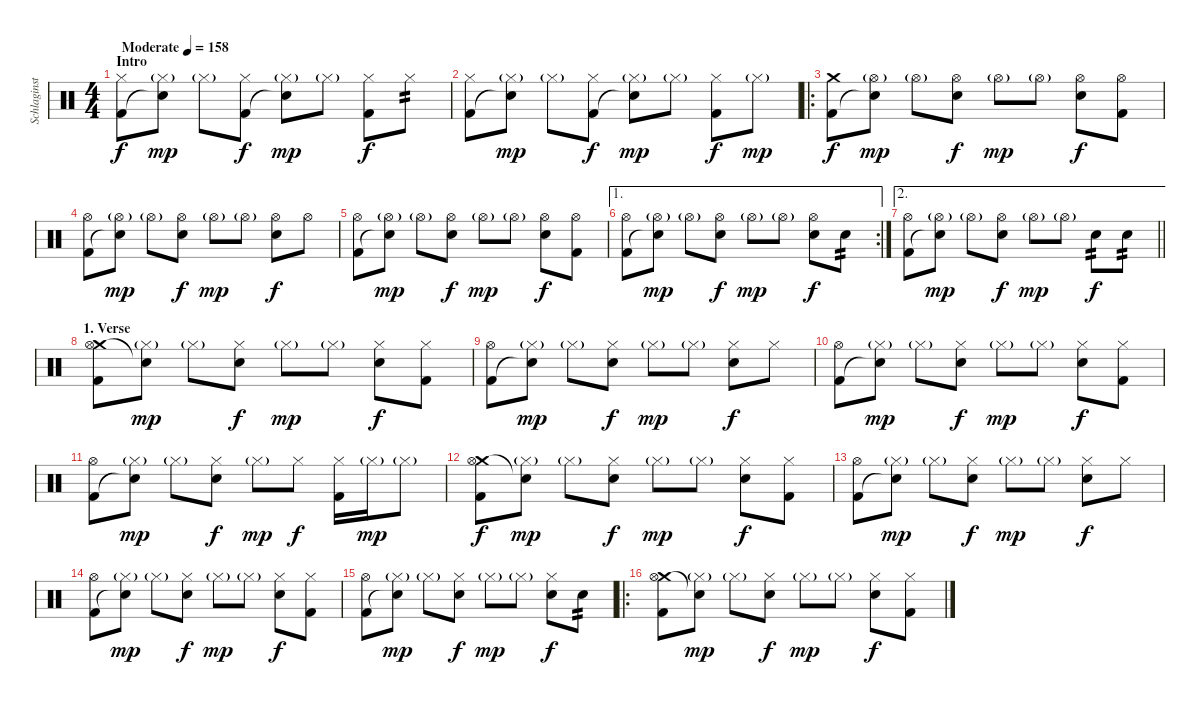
\track ("Schlaginstrumente - Auswahl" "Schlaginst") {instrument percussion}
\staff {score}
\articulation defaults
\ts (4 4)
\section ("" "Intro")
\tempo (158 "Moderate")
\clef neutral
\ks c
("Hi-Hat (closed)" "Kick (hit) 2").8{dy f} ("Hi-Hat (closed)"{g} "Snare (hit)"{t}).8{dy mp} "Hi-Hat (closed)"{g}.8 ("Hi-Hat (closed)" "Kick (hit) 2").8{dy f} ("Hi-Hat (closed)"{g} "Snare (hit)"{t}).8{dy mp} "Hi-Hat (closed)"{g}.8 ("Hi-Hat (closed)" "Kick (hit) 2").8{dy f} "Hi-Hat (closed)".8{tp 2} |
("Hi-Hat (closed)" "Kick (hit) 2").8 ("Hi-Hat (closed)"{g} "Snare (hit)"{t}).8{dy mp} "Hi-Hat (closed)"{g}.8 ("Hi-Hat (closed)" "Kick (hit) 2").8{dy f} ("Hi-Hat (closed)"{g} "Snare (hit)"{t}).8{dy mp} "Hi-Hat (closed)"{g}.8 ("Hi-Hat (closed)" "Kick (hit) 2").8{dy f} "Hi-Hat (closed)"{g}.8{dy mp} |
\ro
("Crash medium (hit)" "Kick (hit) 2").8{dy f} ("Hi-Hat (open)"{g} "Snare (hit)"{t}).8{dy mp} "Hi-Hat (open)"{g}.8 ("Hi-Hat (open)" "Snare (hit) 2").8{dy f} "Hi-Hat (open)"{g}.8{dy mp} "Hi-Hat (open)"{g}.8 ("Hi-Hat (open)" "Snare (hit) 2").8{dy f} ("Hi-Hat (open)" "Kick (hit) 2").8 |
("Hi-Hat (open)" "Kick (hit) 2").8 ("Hi-Hat (open)"{g} "Snare (hit)"{t}).8{dy mp} "Hi-Hat (open)"{g}.8 ("Hi-Hat (open)" "Snare (hit) 2").8{dy f} "Hi-Hat (open)"{g}.8{dy mp} "Hi-Hat (open)"{g}.8 ("Hi-Hat (open)" "Snare (hit) 2").8{dy f} "Hi-Hat (open)".8 |
("Hi-Hat (open)" "Kick (hit) 2").8 ("Hi-Hat (open)"{g} "Snare (hit)"{t}).8{dy mp} "Hi-Hat (open)"{g}.8 ("Hi-Hat (open)" "Snare (hit) 2").8{dy f} "Hi-Hat (open)"{g}.8{dy mp} "Hi-Hat (open)"{g}.8 ("Hi-Hat (open)" "Snare (hit) 2").8{dy f} ("Hi-Hat (open)" "Kick (hit) 2").8 |
\ae 1
\rc 2
("Hi-Hat (open)" "Kick (hit) 2").8 ("Hi-Hat (open)"{g} "Snare (hit)"{t}).8{dy mp} "Hi-Hat (open)"{g}.8 ("Hi-Hat (open)" "Snare (hit) 2").8{dy f} "Hi-Hat (open)"{g}.8{dy mp} "Hi-Hat (open)"{g}.8 ("Hi-Hat (open)" "Snare (hit) 2").8{dy f} "Snare (hit) 2".8{tp 2} |
\ae 2
\barLineRight lightlight
("Hi-Hat (open)" "Kick (hit) 2").8 ("Hi-Hat (open)"{g} "Snare (hit)"{t}).8{dy mp} "Hi-Hat (open)"{g}.8 ("Hi-Hat (open)" "Snare (hit) 2").8{dy f} "Hi-Hat (open)"{g}.8{dy mp} "Hi-Hat (open)"{g}.8 "Snare (hit) 2".8{tp 2 dy f} "Snare (hit) 2".8{tp 2} |
\section ("" "1. Verse")
("Crash medium (hit)" "Hi-Hat (open)" "Kick (hit) 2").8 ("Hi-Hat (closed)"{g} "Snare (hit)"{t}).8{dy mp} "Hi-Hat (closed)"{g}.8 ("Hi-Hat (closed)" "Snare (hit) 2").8{dy f} "Hi-Hat (closed)"{g}.8{dy mp} "Hi-Hat (closed)"{g}.8 ("Hi-Hat (closed)" "Snare (hit) 2").8{dy f} ("Hi-Hat (closed)" "Kick (hit) 2").8 |
("Hi-Hat (open)" "Kick (hit) 2").8 ("Hi-Hat (closed)"{g} "Snare (hit)"{t}).8{dy mp} "Hi-Hat (closed)"{g}.8 ("Hi-Hat (closed)" "Snare (hit) 2").8{dy f} "Hi-Hat (closed)"{g}.8{dy mp} "Hi-Hat (closed)"{g}.8 ("Hi-Hat (closed)" "Snare (hit) 2").8{dy f} "Hi-Hat (closed)".8 |
("Hi-Hat (open)" "Kick (hit) 2").8 ("Hi-Hat (closed)"{g} "Snare (hit)"{t}).8{dy mp} "Hi-Hat (closed)"{g}.8 ("Hi-Hat (closed)" "Snare (hit) 2").8{dy f} "Hi-Hat (closed)"{g}.8{dy mp} "Hi-Hat (closed)"{g}.8 ("Hi-Hat (closed)" "Snare (hit) 2").8{dy f} ("Hi-Hat (closed)" "Kick (hit) 2").8 |
("Hi-Hat (open)" "Kick (hit) 2").8 ("Hi-Hat (closed)"{g} "Snare (hit)"{t}).8{dy mp} "Hi-Hat (closed)"{g}.8 ("Hi-Hat (closed)" "Snare (hit) 2").8{dy f} "Hi-Hat (closed)"{g}.8{dy mp} "Hi-Hat (closed)".8{dy f} ("Hi-Hat (closed)" "Kick (hit) 2").16 "Hi-Hat (closed)"{g}.16{dy mp} "Hi-Hat (closed)"{g}.8 |
("Crash medium (hit)" "Hi-Hat (open)" "Kick (hit) 2").8{dy f} ("Hi-Hat (closed)"{g} "Snare (hit)"{t}).8{dy mp} "Hi-Hat (closed)"{g}.8 ("Hi-Hat (closed)" "Snare (hit) 2").8{dy f} "Hi-Hat (closed)"{g}.8{dy mp} "Hi-Hat (closed)"{g}.8 ("Hi-Hat (closed)" "Snare (hit) 2").8{dy f} ("Hi-Hat (closed)" "Kick (hit) 2").8 |
("Hi-Hat (open)" "Kick (hit) 2").8 ("Hi-Hat (closed)"{g} "Snare (hit)"{t}).8{dy mp} "Hi-Hat (closed)"{g}.8 ("Hi-Hat (closed)" "Snare (hit) 2").8{dy f} "Hi-Hat (closed)"{g}.8{dy mp} "Hi-Hat (closed)"{g}.8 ("Hi-Hat (closed)" "Snare (hit) 2").8{dy f} "Hi-Hat (closed)".8 |
("Hi-Hat (open)" "Kick (hit) 2").8 ("Hi-Hat (closed)"{g} "Snare (hit)"{t}).8{dy mp} "Hi-Hat (closed)"{g}.8 ("Hi-Hat (closed)" "Snare (hit) 2").8{dy f} "Hi-Hat (closed)"{g}.8{dy mp} "Hi-Hat (closed)"{g}.8 ("Hi-Hat (closed)" "Snare (hit) 2").8{dy f} ("Hi-Hat (closed)" "Kick (hit) 2").8 |
("Hi-Hat (open)" "Kick (hit) 2").8 ("Hi-Hat (closed)"{g} "Snare (hit)"{t}).8{dy mp} "Hi-Hat (closed)"{g}.8 ("Hi-Hat (closed)" "Snare (hit) 2").8{dy f} "Hi-Hat (closed)"{g}.8{dy mp} "Hi-Hat (closed)"{g}.8 ("Hi-Hat (closed)" "Snare (hit) 2").8{dy f} "Snare (hit) 2".8{tp 2} |
\ro
("Crash medium (hit)" "Hi-Hat (open)" "Kick (hit) 2").8 ("Hi-Hat (closed)"{g} "Snare (hit)"{t}).8{dy mp} "Hi-Hat (closed)"{g}.8 ("Hi-Hat (closed)" "Snare (hit) 2").8{dy f} "Hi-Hat (closed)"{g}.8{dy mp} "Hi-Hat (closed)"{g}.8 ("Hi-Hat (closed)" "Snare (hit) 2").8{dy f} ("Hi-Hat (closed)" "Kick (hit) 2").8
